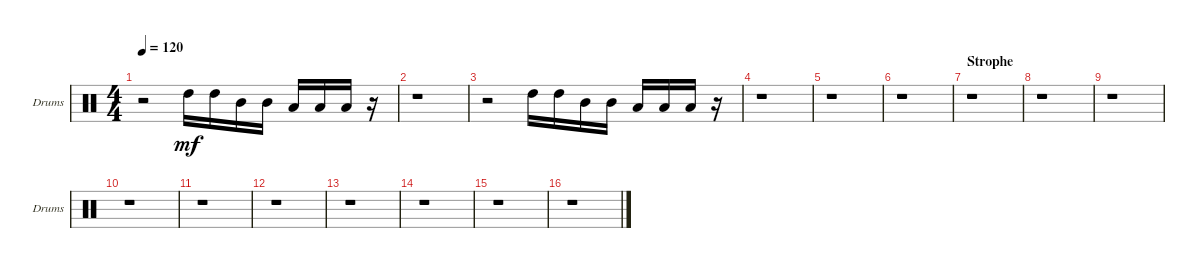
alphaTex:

\bracketExtendMode groupsimilarinstruments
\singleTrackTrackNamePolicy allsystems
\multiTrackTrackNamePolicy allsystems
\firstSystemTrackNameOrientation horizontal
\otherSystemsTrackNameOrientation horizontal
\track ("Toms" "Drums") {instrument percussion}
\staff {score}
\articulation defaults
\ts (4 4)
\tempo 120
\clef neutral
\scale
0.333333
\ks c
r.2{dy mf} "High Tom (hit)".16 "High Tom (hit)".16 "Mid Tom (hit)".16 "Mid Tom (hit)".16 "Low Tom (hit)".16 "Low Tom (hit)".16 "Low Tom (hit)".16 r.16 |
\scale
0.333333 r.1 |
\scale
0.333333 r.2 "High Tom (hit)".16 "High Tom (hit)".16 "Mid Tom (hit)".16 "Mid Tom (hit)".16 "Low Tom (hit)".16 "Low Tom (hit)".16 "Low Tom (hit)".16 r.16 |
\scale
0.333333 r.1 |
\scale
0.333333 r.1 |
\scale
0.333333 r.1 |
\section ("" "Strophe")
\scale
0.333333 r.1 |
\scale
0.333333 r.1 |
\scale
0.333333 r.1 |
\scale
0.333333 r.1 |
\scale
0.333333 r.1 |
\scale
0.333333 r.1 |
\scale
0.333333 r.1 |
\scale
0.333333 r.1 |
\scale
0.333333 r.1 |
\scale
0.333333 r.1
